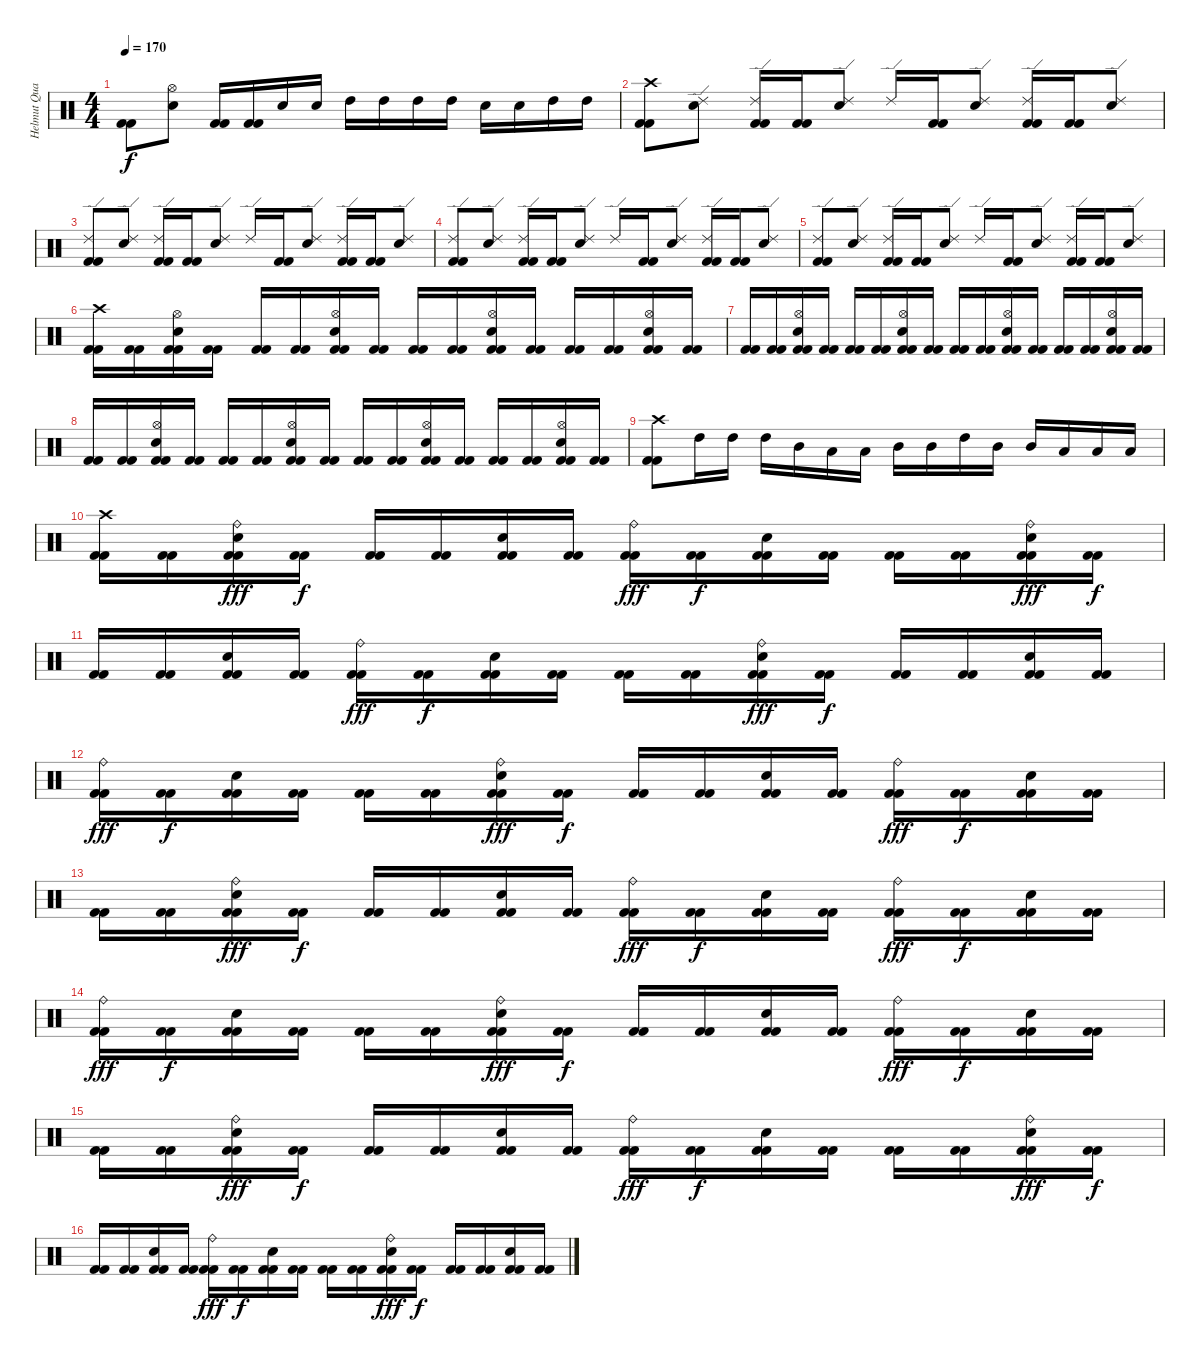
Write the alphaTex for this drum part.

\track ("Helmut Quacken" "Helmut Qua") {instrument percussion}
\staff {score}
\articulation defaults
\ts (4 4)
\tempo 170
\clef neutral
\ks c
("Kick (hit) 2" "Kick (hit) 2").8{dy f} ("Hi-Hat (open)" "Electric Snare (hit)").8 ("Kick (hit) 2" "Kick (hit) 2").16 ("Kick (hit) 2" "Kick (hit) 2").16 "Electric Snare (hit)".16 "Electric Snare (hit)".16 "High Tom (hit)".16 "High Tom (hit)".16 "High Tom (hit)".16 "High Tom (hit)".16 "Electric Snare (hit)".16 "Electric Snare (hit)".16 "High Tom (hit)".16 "High Tom (hit)".16 |
("Crash high (hit)" "Kick (hit) 2" "Kick (hit) 2").8 ("Ride (edge) 2" "Electric Snare (hit)").8 ("Ride (edge) 2" "Kick (hit) 2" "Kick (hit) 2").16 ("Kick (hit) 2" "Kick (hit) 2").16 ("Ride (edge) 2" "Electric Snare (hit)").8 "Ride (edge) 2".16 ("Kick (hit) 2" "Kick (hit) 2").16 ("Ride (edge) 2" "Electric Snare (hit)").8 ("Ride (edge) 2" "Kick (hit) 2" "Kick (hit) 2").16 ("Kick (hit) 2" "Kick (hit) 2").16 ("Ride (edge) 2" "Electric Snare (hit)").8 |
("Ride (edge) 2" "Kick (hit) 2" "Kick (hit) 2").8 ("Ride (edge) 2" "Electric Snare (hit)").8 ("Ride (edge) 2" "Kick (hit) 2" "Kick (hit) 2").16 ("Kick (hit) 2" "Kick (hit) 2").16 ("Ride (edge) 2" "Electric Snare (hit)").8 "Ride (edge) 2".16 ("Kick (hit) 2" "Kick (hit) 2").16 ("Ride (edge) 2" "Electric Snare (hit)").8 ("Ride (edge) 2" "Kick (hit) 2" "Kick (hit) 2").16 ("Kick (hit) 2" "Kick (hit) 2").16 ("Ride (edge) 2" "Electric Snare (hit)").8 |
("Ride (edge) 2" "Kick (hit) 2" "Kick (hit) 2").8 ("Ride (edge) 2" "Electric Snare (hit)").8 ("Ride (edge) 2" "Kick (hit) 2" "Kick (hit) 2").16 ("Kick (hit) 2" "Kick (hit) 2").16 ("Ride (edge) 2" "Electric Snare (hit)").8 "Ride (edge) 2".16 ("Kick (hit) 2" "Kick (hit) 2").16 ("Ride (edge) 2" "Electric Snare (hit)").8 ("Ride (edge) 2" "Kick (hit) 2" "Kick (hit) 2").16 ("Kick (hit) 2" "Kick (hit) 2").16 ("Ride (edge) 2" "Electric Snare (hit)").8 |
("Ride (edge) 2" "Kick (hit) 2" "Kick (hit) 2").8 ("Ride (edge) 2" "Electric Snare (hit)").8 ("Ride (edge) 2" "Kick (hit) 2" "Kick (hit) 2").16 ("Kick (hit) 2" "Kick (hit) 2").16 ("Ride (edge) 2" "Electric Snare (hit)").8 "Ride (edge) 2".16 ("Kick (hit) 2" "Kick (hit) 2").16 ("Ride (edge) 2" "Electric Snare (hit)").8 ("Ride (edge) 2" "Kick (hit) 2" "Kick (hit) 2").16 ("Kick (hit) 2" "Kick (hit) 2").16 ("Ride (edge) 2" "Electric Snare (hit)").8 |
("Crash high (hit)" "Kick (hit) 2" "Kick (hit) 2").16 ("Kick (hit) 2" "Kick (hit) 2").16 ("Hi-Hat (open)" "Electric Snare (hit)" "Kick (hit) 2" "Kick (hit) 2").16 ("Kick (hit) 2" "Kick (hit) 2").16 ("Kick (hit) 2" "Kick (hit) 2").16 ("Kick (hit) 2" "Kick (hit) 2").16 ("Hi-Hat (open)" "Electric Snare (hit)" "Kick (hit) 2" "Kick (hit) 2").16 ("Kick (hit) 2" "Kick (hit) 2").16 ("Kick (hit) 2" "Kick (hit) 2").16 ("Kick (hit) 2" "Kick (hit) 2").16 ("Hi-Hat (open)" "Electric Snare (hit)" "Kick (hit) 2" "Kick (hit) 2").16 ("Kick (hit) 2" "Kick (hit) 2").16 ("Kick (hit) 2" "Kick (hit) 2").16 ("Kick (hit) 2" "Kick (hit) 2").16 ("Hi-Hat (open)" "Electric Snare (hit)" "Kick (hit) 2" "Kick (hit) 2").16 ("Kick (hit) 2" "Kick (hit) 2").16 |
("Kick (hit) 2" "Kick (hit) 2").16 ("Kick (hit) 2" "Kick (hit) 2").16 ("Hi-Hat (open)" "Electric Snare (hit)" "Kick (hit) 2" "Kick (hit) 2").16 ("Kick (hit) 2" "Kick (hit) 2").16 ("Kick (hit) 2" "Kick (hit) 2").16 ("Kick (hit) 2" "Kick (hit) 2").16 ("Hi-Hat (open)" "Electric Snare (hit)" "Kick (hit) 2" "Kick (hit) 2").16 ("Kick (hit) 2" "Kick (hit) 2").16 ("Kick (hit) 2" "Kick (hit) 2").16 ("Kick (hit) 2" "Kick (hit) 2").16 ("Hi-Hat (open)" "Electric Snare (hit)" "Kick (hit) 2" "Kick (hit) 2").16 ("Kick (hit) 2" "Kick (hit) 2").16 ("Kick (hit) 2" "Kick (hit) 2").16 ("Kick (hit) 2" "Kick (hit) 2").16 ("Hi-Hat (open)" "Electric Snare (hit)" "Kick (hit) 2" "Kick (hit) 2").16 ("Kick (hit) 2" "Kick (hit) 2").16 |
("Kick (hit) 2" "Kick (hit) 2").16 ("Kick (hit) 2" "Kick (hit) 2").16 ("Hi-Hat (open)" "Electric Snare (hit)" "Kick (hit) 2" "Kick (hit) 2").16 ("Kick (hit) 2" "Kick (hit) 2").16 ("Kick (hit) 2" "Kick (hit) 2").16 ("Kick (hit) 2" "Kick (hit) 2").16 ("Hi-Hat (open)" "Electric Snare (hit)" "Kick (hit) 2" "Kick (hit) 2").16 ("Kick (hit) 2" "Kick (hit) 2").16 ("Kick (hit) 2" "Kick (hit) 2").16 ("Kick (hit) 2" "Kick (hit) 2").16 ("Hi-Hat (open)" "Electric Snare (hit)" "Kick (hit) 2" "Kick (hit) 2").16 ("Kick (hit) 2" "Kick (hit) 2").16 ("Kick (hit) 2" "Kick (hit) 2").16 ("Kick (hit) 2" "Kick (hit) 2").16 ("Hi-Hat (open)" "Electric Snare (hit)" "Kick (hit) 2" "Kick (hit) 2").16 ("Kick (hit) 2" "Kick (hit) 2").16 |
("Crash high (hit)" "Kick (hit) 2" "Kick (hit) 2").8 "High Tom (hit)".16 "High Tom (hit)".16 "High Tom (hit)".16 "Mid Tom (hit)".16 "Low Tom (hit)".16 "Low Tom (hit)".16 "Mid Tom (hit)".16 "Mid Tom (hit)".16 "High Tom (hit)".16 "Mid Tom (hit)".16 "Mid Tom (hit)".16 "Low Tom (hit)".16 "Low Tom (hit)".16 "Low Tom (hit)".16 |
("Crash high (hit)" "Kick (hit) 2" "Kick (hit) 2").16 ("Kick (hit) 2" "Kick (hit) 2").16 ("Ride (bell)" "Electric Snare (hit)" "Kick (hit) 2" "Kick (hit) 2").16{dy fff} ("Kick (hit) 2" "Kick (hit) 2").16{dy f} ("Kick (hit) 2" "Kick (hit) 2").16 ("Kick (hit) 2" "Kick (hit) 2").16 ("Electric Snare (hit)" "Kick (hit) 2" "Kick (hit) 2").16 ("Kick (hit) 2" "Kick (hit) 2").16 ("Ride (bell)" "Kick (hit) 2" "Kick (hit) 2").16{dy fff} ("Kick (hit) 2" "Kick (hit) 2").16{dy f} ("Electric Snare (hit)" "Kick (hit) 2" "Kick (hit) 2").16 ("Kick (hit) 2" "Kick (hit) 2").16 ("Kick (hit) 2" "Kick (hit) 2").16 ("Kick (hit) 2" "Kick (hit) 2").16 ("Ride (bell)" "Electric Snare (hit)" "Kick (hit) 2" "Kick (hit) 2").16{dy fff} ("Kick (hit) 2" "Kick (hit) 2").16{dy f} |
("Kick (hit) 2" "Kick (hit) 2").16 ("Kick (hit) 2" "Kick (hit) 2").16 ("Electric Snare (hit)" "Kick (hit) 2" "Kick (hit) 2").16 ("Kick (hit) 2" "Kick (hit) 2").16 ("Ride (bell)" "Kick (hit) 2" "Kick (hit) 2").16{dy fff} ("Kick (hit) 2" "Kick (hit) 2").16{dy f} ("Electric Snare (hit)" "Kick (hit) 2" "Kick (hit) 2").16 ("Kick (hit) 2" "Kick (hit) 2").16 ("Kick (hit) 2" "Kick (hit) 2").16 ("Kick (hit) 2" "Kick (hit) 2").16 ("Ride (bell)" "Electric Snare (hit)" "Kick (hit) 2" "Kick (hit) 2").16{dy fff} ("Kick (hit) 2" "Kick (hit) 2").16{dy f} ("Kick (hit) 2" "Kick (hit) 2").16 ("Kick (hit) 2" "Kick (hit) 2").16 ("Electric Snare (hit)" "Kick (hit) 2" "Kick (hit) 2").16 ("Kick (hit) 2" "Kick (hit) 2").16 |
("Ride (bell)" "Kick (hit) 2" "Kick (hit) 2").16{dy fff} ("Kick (hit) 2" "Kick (hit) 2").16{dy f} ("Electric Snare (hit)" "Kick (hit) 2" "Kick (hit) 2").16 ("Kick (hit) 2" "Kick (hit) 2").16 ("Kick (hit) 2" "Kick (hit) 2").16 ("Kick (hit) 2" "Kick (hit) 2").16 ("Ride (bell)" "Electric Snare (hit)" "Kick (hit) 2" "Kick (hit) 2").16{dy fff} ("Kick (hit) 2" "Kick (hit) 2").16{dy f} ("Kick (hit) 2" "Kick (hit) 2").16 ("Kick (hit) 2" "Kick (hit) 2").16 ("Electric Snare (hit)" "Kick (hit) 2" "Kick (hit) 2").16 ("Kick (hit) 2" "Kick (hit) 2").16 ("Ride (bell)" "Kick (hit) 2" "Kick (hit) 2").16{dy fff} ("Kick (hit) 2" "Kick (hit) 2").16{dy f} ("Electric Snare (hit)" "Kick (hit) 2" "Kick (hit) 2").16 ("Kick (hit) 2" "Kick (hit) 2").16 |
("Kick (hit) 2" "Kick (hit) 2").16 ("Kick (hit) 2" "Kick (hit) 2").16 ("Ride (bell)" "Electric Snare (hit)" "Kick (hit) 2" "Kick (hit) 2").16{dy fff} ("Kick (hit) 2" "Kick (hit) 2").16{dy f} ("Kick (hit) 2" "Kick (hit) 2").16 ("Kick (hit) 2" "Kick (hit) 2").16 ("Electric Snare (hit)" "Kick (hit) 2" "Kick (hit) 2").16 ("Kick (hit) 2" "Kick (hit) 2").16 ("Ride (bell)" "Kick (hit) 2" "Kick (hit) 2").16{dy fff} ("Kick (hit) 2" "Kick (hit) 2").16{dy f} ("Electric Snare (hit)" "Kick (hit) 2" "Kick (hit) 2").16 ("Kick (hit) 2" "Kick (hit) 2").16 ("Ride (bell)" "Kick (hit) 2" "Kick (hit) 2").16{dy fff} ("Kick (hit) 2" "Kick (hit) 2").16{dy f} ("Electric Snare (hit)" "Kick (hit) 2" "Kick (hit) 2").16 ("Kick (hit) 2" "Kick (hit) 2").16 |
("Ride (bell)" "Kick (hit) 2" "Kick (hit) 2").16{dy fff} ("Kick (hit) 2" "Kick (hit) 2").16{dy f} ("Electric Snare (hit)" "Kick (hit) 2" "Kick (hit) 2").16 ("Kick (hit) 2" "Kick (hit) 2").16 ("Kick (hit) 2" "Kick (hit) 2").16 ("Kick (hit) 2" "Kick (hit) 2").16 ("Ride (bell)" "Electric Snare (hit)" "Kick (hit) 2" "Kick (hit) 2").16{dy fff} ("Kick (hit) 2" "Kick (hit) 2").16{dy f} ("Kick (hit) 2" "Kick (hit) 2").16 ("Kick (hit) 2" "Kick (hit) 2").16 ("Electric Snare (hit)" "Kick (hit) 2" "Kick (hit) 2").16 ("Kick (hit) 2" "Kick (hit) 2").16 ("Ride (bell)" "Kick (hit) 2" "Kick (hit) 2").16{dy fff} ("Kick (hit) 2" "Kick (hit) 2").16{dy f} ("Electric Snare (hit)" "Kick (hit) 2" "Kick (hit) 2").16 ("Kick (hit) 2" "Kick (hit) 2").16 |
("Kick (hit) 2" "Kick (hit) 2").16 ("Kick (hit) 2" "Kick (hit) 2").16 ("Ride (bell)" "Electric Snare (hit)" "Kick (hit) 2" "Kick (hit) 2").16{dy fff} ("Kick (hit) 2" "Kick (hit) 2").16{dy f} ("Kick (hit) 2" "Kick (hit) 2").16 ("Kick (hit) 2" "Kick (hit) 2").16 ("Electric Snare (hit)" "Kick (hit) 2" "Kick (hit) 2").16 ("Kick (hit) 2" "Kick (hit) 2").16 ("Ride (bell)" "Kick (hit) 2" "Kick (hit) 2").16{dy fff} ("Kick (hit) 2" "Kick (hit) 2").16{dy f} ("Electric Snare (hit)" "Kick (hit) 2" "Kick (hit) 2").16 ("Kick (hit) 2" "Kick (hit) 2").16 ("Kick (hit) 2" "Kick (hit) 2").16 ("Kick (hit) 2" "Kick (hit) 2").16 ("Ride (bell)" "Electric Snare (hit)" "Kick (hit) 2" "Kick (hit) 2").16{dy fff} ("Kick (hit) 2" "Kick (hit) 2").16{dy f} |
("Kick (hit) 2" "Kick (hit) 2").16 ("Kick (hit) 2" "Kick (hit) 2").16 ("Electric Snare (hit)" "Kick (hit) 2" "Kick (hit) 2").16 ("Kick (hit) 2" "Kick (hit) 2").16 ("Ride (bell)" "Kick (hit) 2" "Kick (hit) 2").16{dy fff} ("Kick (hit) 2" "Kick (hit) 2").16{dy f} ("Electric Snare (hit)" "Kick (hit) 2" "Kick (hit) 2").16 ("Kick (hit) 2" "Kick (hit) 2").16 ("Kick (hit) 2" "Kick (hit) 2").16 ("Kick (hit) 2" "Kick (hit) 2").16 ("Ride (bell)" "Electric Snare (hit)" "Kick (hit) 2" "Kick (hit) 2").16{dy fff} ("Kick (hit) 2" "Kick (hit) 2").16{dy f} ("Kick (hit) 2" "Kick (hit) 2").16 ("Kick (hit) 2" "Kick (hit) 2").16 ("Electric Snare (hit)" "Kick (hit) 2" "Kick (hit) 2").16 ("Kick (hit) 2" "Kick (hit) 2").16
